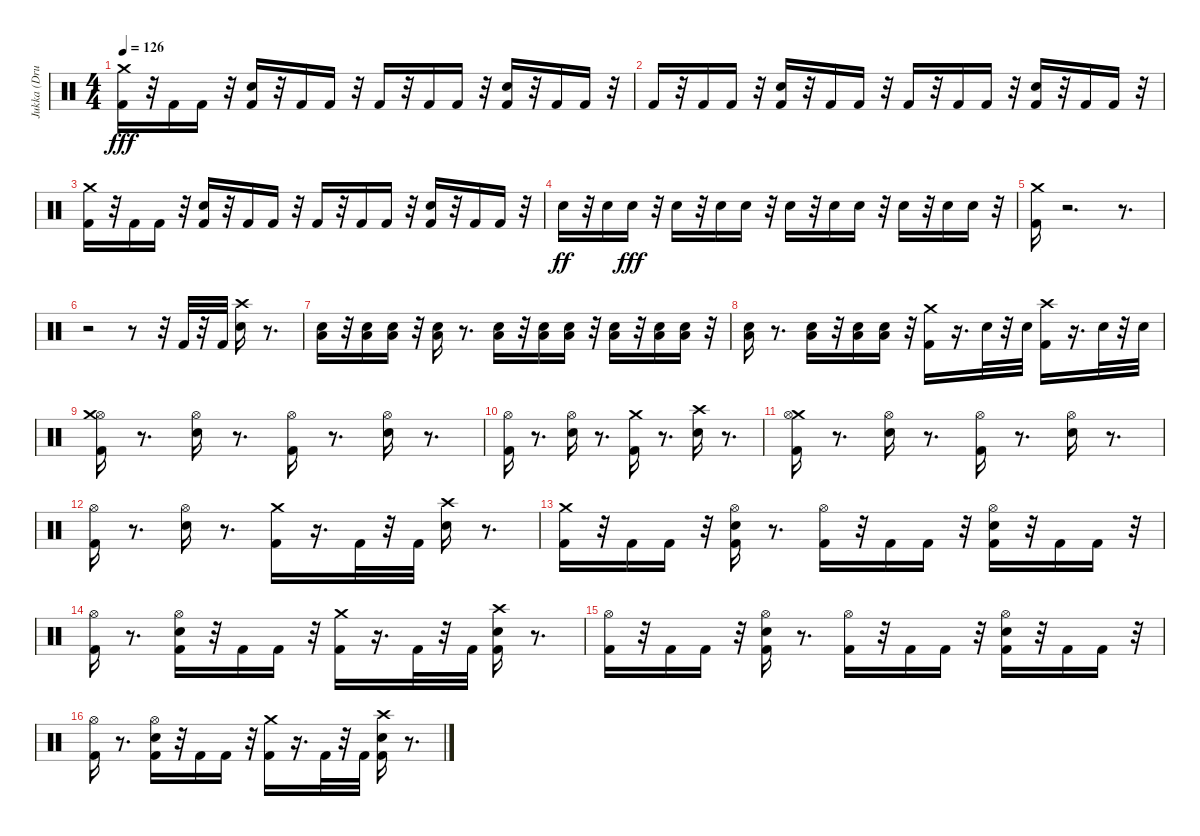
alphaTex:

\track ("Jukka (Drums)" "Jukka (Dru") {instrument percussion}
\staff {score}
\articulation defaults
\ts (4 4)
\tempo 126
\clef neutral
\ks c
("Kick (hit) 2" "Crash medium (hit)").16{dy fff} r.32 "Kick (hit) 2".16 "Kick (hit) 2".16 r.32 ("Kick (hit) 2" "Electric Snare (hit)").16 r.32 "Kick (hit) 2".16 "Kick (hit) 2".16 r.32 "Kick (hit) 2".16 r.32 "Kick (hit) 2".16 "Kick (hit) 2".16 r.32 ("Kick (hit) 2" "Electric Snare (hit)").16 r.32 "Kick (hit) 2".16 "Kick (hit) 2".16 r.32 |
"Kick (hit) 2".16 r.32 "Kick (hit) 2".16 "Kick (hit) 2".16 r.32 ("Kick (hit) 2" "Electric Snare (hit)").16 r.32 "Kick (hit) 2".16 "Kick (hit) 2".16 r.32 "Kick (hit) 2".16 r.32 "Kick (hit) 2".16 "Kick (hit) 2".16 r.32 ("Kick (hit) 2" "Electric Snare (hit)").16 r.32 "Kick (hit) 2".16 "Kick (hit) 2".16 r.32 |
("Kick (hit) 2" "Crash medium (hit)").16 r.32 "Kick (hit) 2".16 "Kick (hit) 2".16 r.32 ("Kick (hit) 2" "Electric Snare (hit)").16 r.32 "Kick (hit) 2".16 "Kick (hit) 2".16 r.32 "Kick (hit) 2".16 r.32 "Kick (hit) 2".16 "Kick (hit) 2".16 r.32 ("Kick (hit) 2" "Electric Snare (hit)").16 r.32 "Kick (hit) 2".16 "Kick (hit) 2".16 r.32 |
"Electric Snare (hit)".16{dy ff} r.32 "Electric Snare (hit)".16 "Electric Snare (hit)".16{dy fff} r.32 "Electric Snare (hit)".16 r.32 "Electric Snare (hit)".16 "Electric Snare (hit)".16 r.32 "Electric Snare (hit)".16 r.32 "Electric Snare (hit)".16 "Electric Snare (hit)".16 r.32 "Electric Snare (hit)".16 r.32 "Electric Snare (hit)".16 "Electric Snare (hit)".16 r.32 |
("Kick (hit) 2" "Crash medium (hit)").16 r.2{d} r.8{d} |
r.2 r.8 r.32 "Kick (hit) 2".32 r.32 "Kick (hit) 2".32 ("Electric Snare (hit)" "Crash high (hit)").16 r.8{d} |
("Electric Snare (hit)" "Low Floor Tom (hit)").16 r.32 ("Electric Snare (hit)" "Low Floor Tom (hit)").16 ("Electric Snare (hit)" "Low Floor Tom (hit)").16 r.32 ("Electric Snare (hit)" "Low Floor Tom (hit)").16 r.8{d} ("Electric Snare (hit)" "Low Floor Tom (hit)").16 r.32 ("Electric Snare (hit)" "Low Floor Tom (hit)").16 ("Electric Snare (hit)" "Low Floor Tom (hit)").16 r.32 ("Electric Snare (hit)" "Low Floor Tom (hit)").16 r.32 ("Electric Snare (hit)" "Low Floor Tom (hit)").16 ("Electric Snare (hit)" "Low Floor Tom (hit)").16 r.32 |
("Electric Snare (hit)" "Low Floor Tom (hit)").16 r.8{d} ("Electric Snare (hit)" "Low Floor Tom (hit)").16 r.32 ("Electric Snare (hit)" "Low Floor Tom (hit)").16 ("Electric Snare (hit)" "Low Floor Tom (hit)").16 r.32 ("Kick (hit) 2" "Crash medium (hit)").16 r.16{d} "Electric Snare (hit)".32 r.32 "Electric Snare (hit)".32 ("Kick (hit) 2" "Crash high (hit)").16 r.16{d} "Electric Snare (hit)".32 r.32 "Electric Snare (hit)".32 |
("Kick (hit) 2" "Hi-Hat (open)" "Crash medium (hit)").16 r.8{d} ("Electric Snare (hit)" "Hi-Hat (open)").16 r.8{d} ("Kick (hit) 2" "Hi-Hat (open)").16 r.8{d} ("Electric Snare (hit)" "Hi-Hat (open)").16 r.8{d} |
("Kick (hit) 2" "Hi-Hat (open)").16 r.8{d} ("Electric Snare (hit)" "Hi-Hat (open)").16 r.8{d} ("Kick (hit) 2" "Crash medium (hit)").16 r.8{d} ("Electric Snare (hit)" "Crash high (hit)").16 r.8{d} |
("Kick (hit) 2" "Crash medium (hit)" "Hi-Hat (open)").16 r.8{d} ("Electric Snare (hit)" "Hi-Hat (open)").16 r.8{d} ("Kick (hit) 2" "Hi-Hat (open)").16 r.8{d} ("Electric Snare (hit)" "Hi-Hat (open)").16 r.8{d} |
("Kick (hit) 2" "Hi-Hat (open)").16 r.8{d} ("Electric Snare (hit)" "Hi-Hat (open)").16 r.8{d} ("Kick (hit) 2" "Crash medium (hit)").16 r.16{d} "Kick (hit) 2".32 r.32 "Kick (hit) 2".32 ("Electric Snare (hit)" "Crash high (hit)").16 r.8{d} |
("Kick (hit) 2" "Crash medium (hit)").16 r.32 "Kick (hit) 2".16 "Kick (hit) 2".16 r.32 ("Electric Snare (hit)" "Kick (hit) 2" "Hi-Hat (open)").16 r.8{d} ("Kick (hit) 2" "Hi-Hat (open)").16 r.32 "Kick (hit) 2".16 "Kick (hit) 2".16 r.32 ("Electric Snare (hit)" "Kick (hit) 2" "Hi-Hat (open)").16 r.32 "Kick (hit) 2".16 "Kick (hit) 2".16 r.32 |
("Kick (hit) 2" "Hi-Hat (open)").16 r.8{d} ("Electric Snare (hit)" "Kick (hit) 2" "Hi-Hat (open)").16 r.32 "Kick (hit) 2".16 "Kick (hit) 2".16 r.32 ("Kick (hit) 2" "Crash medium (hit)").16 r.16{d} "Kick (hit) 2".32 r.32 "Kick (hit) 2".32 ("Electric Snare (hit)" "Kick (hit) 2" "Crash high (hit)").16 r.8{d} |
("Kick (hit) 2" "Hi-Hat (open)").16 r.32 "Kick (hit) 2".16 "Kick (hit) 2".16 r.32 ("Electric Snare (hit)" "Kick (hit) 2" "Hi-Hat (open)").16 r.8{d} ("Kick (hit) 2" "Hi-Hat (open)").16 r.32 "Kick (hit) 2".16 "Kick (hit) 2".16 r.32 ("Electric Snare (hit)" "Kick (hit) 2" "Hi-Hat (open)").16 r.32 "Kick (hit) 2".16 "Kick (hit) 2".16 r.32 |
("Kick (hit) 2" "Hi-Hat (open)").16 r.8{d} ("Electric Snare (hit)" "Kick (hit) 2" "Hi-Hat (open)").16 r.32 "Kick (hit) 2".16 "Kick (hit) 2".16 r.32 ("Kick (hit) 2" "Crash medium (hit)").16 r.16{d} "Kick (hit) 2".32 r.32 "Kick (hit) 2".32 ("Electric Snare (hit)" "Kick (hit) 2" "Crash high (hit)").16 r.8{d}
